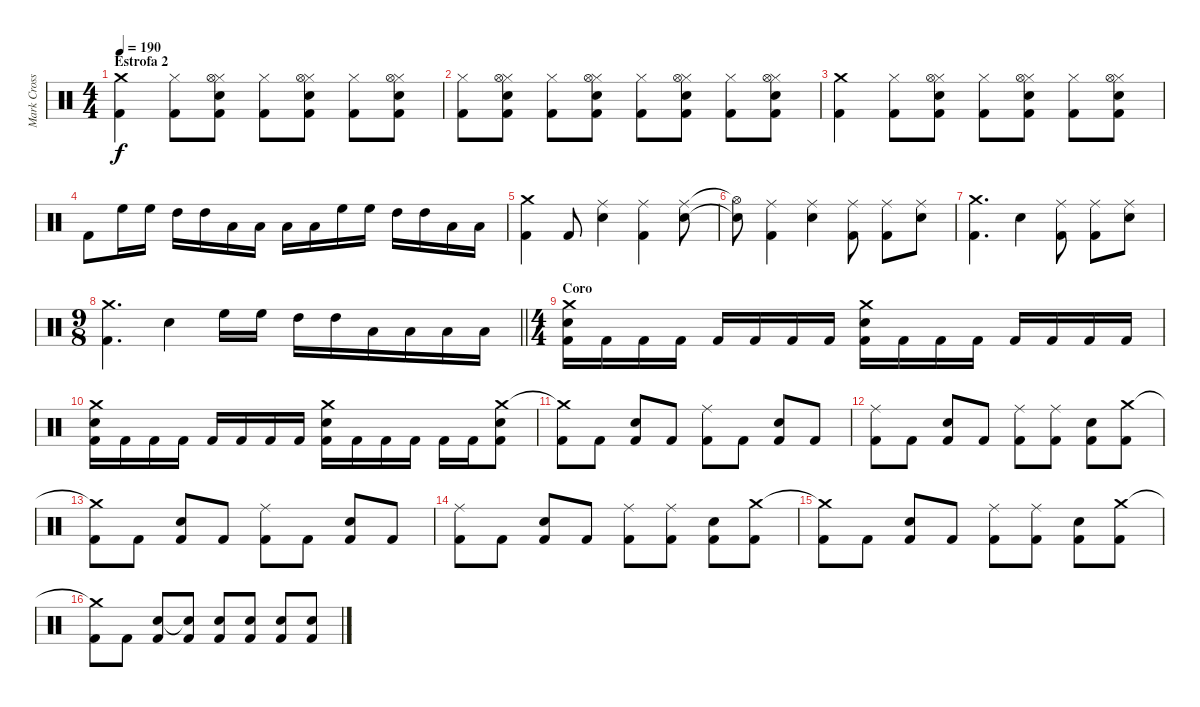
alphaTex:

\track ("Mark Cross" "Mark Cross") {instrument percussion}
\staff {score}
\articulation defaults
\ts (4 4)
\section ("" "Estrofa 2")
\tempo 190
\clef neutral
\ks c
("Crash medium (hit)" "Kick (hit) 2").4{dy f} ("Hi-Hat (closed)" "Kick (hit) 2").8 ("Hi-Hat (closed)" "Hi-Hat (open)" "Electric Snare (hit)" "Kick (hit) 2").8 ("Hi-Hat (closed)" "Kick (hit) 2").8 ("Hi-Hat (closed)" "Hi-Hat (open)" "Electric Snare (hit)" "Kick (hit) 2").8 ("Hi-Hat (closed)" "Kick (hit) 2").8 ("Hi-Hat (closed)" "Hi-Hat (open)" "Electric Snare (hit)" "Kick (hit) 2").8 |
("Hi-Hat (closed)" "Kick (hit) 2").8 ("Hi-Hat (closed)" "Hi-Hat (open)" "Electric Snare (hit)" "Kick (hit) 2").8 ("Hi-Hat (closed)" "Kick (hit) 2").8 ("Hi-Hat (closed)" "Hi-Hat (open)" "Electric Snare (hit)" "Kick (hit) 2").8 ("Hi-Hat (closed)" "Kick (hit) 2").8 ("Hi-Hat (closed)" "Hi-Hat (open)" "Electric Snare (hit)" "Kick (hit) 2").8 ("Hi-Hat (closed)" "Kick (hit) 2").8 ("Hi-Hat (closed)" "Hi-Hat (open)" "Electric Snare (hit)" "Kick (hit) 2").8 |
("Crash medium (hit)" "Kick (hit) 2").4 ("Hi-Hat (closed)" "Kick (hit) 2").8 ("Hi-Hat (closed)" "Hi-Hat (open)" "Electric Snare (hit)" "Kick (hit) 2").8 ("Hi-Hat (closed)" "Kick (hit) 2").8 ("Hi-Hat (closed)" "Hi-Hat (open)" "Electric Snare (hit)" "Kick (hit) 2").8 ("Hi-Hat (closed)" "Kick (hit) 2").8 ("Hi-Hat (closed)" "Hi-Hat (open)" "Electric Snare (hit)" "Kick (hit) 2").8 |
"Kick (hit) 2".8 "High Floor Tom (hit)".16 "High Floor Tom (hit)".16 "High Tom (hit)".16 "High Tom (hit)".16 "Low Tom (hit)".16 "Low Tom (hit)".16 "Low Tom (hit)".16 "Low Tom (hit)".16 "High Floor Tom (hit)".16 "High Floor Tom (hit)".16 "High Tom (hit)".16 "High Tom (hit)".16 "Low Tom (hit)".16 "Low Tom (hit)".16 |
("Crash medium (hit)" "Kick (hit) 2").4 "Kick (hit) 2".8 ("Ride (middle)" "Electric Snare (hit)").4 ("Ride (middle)" "Kick (hit) 2").4 ("Ride (middle)" "Electric Snare (hit)").8 |
("Hi-Hat (open)"{t} "Electric Snare (hit)"{t}).8 ("Ride (middle)" "Kick (hit) 2").4 ("Ride (middle)" "Electric Snare (hit)").4 ("Ride (middle)" "Kick (hit) 2").8 ("Ride (middle)" "Kick (hit) 2").8 ("Ride (middle)" "Electric Snare (hit)").8 |
("Crash medium (hit)" "Kick (hit) 2").4{d} "Electric Snare (hit)".4 ("Ride (middle)" "Kick (hit) 2").8 ("Ride (middle)" "Kick (hit) 2").8 ("Ride (middle)" "Electric Snare (hit)").8 |
\ts (9 8)
\barLineRight lightlight
("Crash medium (hit)" "Kick (hit) 2").4{d} "Electric Snare (hit)".4 "High Floor Tom (hit)".16 "High Floor Tom (hit)".16 "High Tom (hit)".16 "High Tom (hit)".16 "Low Tom (hit)".16 "Low Tom (hit)".16 "Low Tom (hit)".16 "Low Tom (hit)".16 |
\ts (4 4)
\section ("" "Coro")
("Crash medium (hit)" "Electric Snare (hit)" "Kick (hit) 2").16 "Kick (hit) 2".16 "Kick (hit) 2".16 "Kick (hit) 2".16 "Kick (hit) 2".16 "Kick (hit) 2".16 "Kick (hit) 2".16 "Kick (hit) 2".16 ("Crash medium (hit)" "Electric Snare (hit)" "Kick (hit) 2").16 "Kick (hit) 2".16 "Kick (hit) 2".16 "Kick (hit) 2".16 "Kick (hit) 2".16 "Kick (hit) 2".16 "Kick (hit) 2".16 "Kick (hit) 2".16 |
("Crash medium (hit)" "Electric Snare (hit)" "Kick (hit) 2").16 "Kick (hit) 2".16 "Kick (hit) 2".16 "Kick (hit) 2".16 "Kick (hit) 2".16 "Kick (hit) 2".16 "Kick (hit) 2".16 "Kick (hit) 2".16 ("Crash medium (hit)" "Electric Snare (hit)" "Kick (hit) 2").16 "Kick (hit) 2".16 "Kick (hit) 2".16 "Kick (hit) 2".16 "Kick (hit) 2".16 "Kick (hit) 2".16 ("Crash medium (hit)" "Electric Snare (hit)" "Kick (hit) 2").8 |
("Crash medium (hit)"{t} "Kick (hit) 2").8 "Kick (hit) 2".8 ("Electric Snare (hit)" "Kick (hit) 2").8 "Kick (hit) 2".8 ("Ride (middle)" "Kick (hit) 2").8 "Kick (hit) 2".8 ("Electric Snare (hit)" "Kick (hit) 2").8 "Kick (hit) 2".8 |
("Ride (middle)" "Kick (hit) 2").8 "Kick (hit) 2".8 ("Electric Snare (hit)" "Kick (hit) 2").8 "Kick (hit) 2".8 ("Ride (middle)" "Kick (hit) 2").8 ("Ride (middle)" "Kick (hit) 2").8 ("Electric Snare (hit)" "Kick (hit) 2").8 ("Crash medium (hit)" "Kick (hit) 2").8 |
("Crash medium (hit)"{t} "Kick (hit) 2").8 "Kick (hit) 2".8 ("Electric Snare (hit)" "Kick (hit) 2").8 "Kick (hit) 2".8 ("Ride (middle)" "Kick (hit) 2").8 "Kick (hit) 2".8 ("Electric Snare (hit)" "Kick (hit) 2").8 "Kick (hit) 2".8 |
("Ride (middle)" "Kick (hit) 2").8 "Kick (hit) 2".8 ("Electric Snare (hit)" "Kick (hit) 2").8 "Kick (hit) 2".8 ("Ride (middle)" "Kick (hit) 2").8 ("Ride (middle)" "Kick (hit) 2").8 ("Electric Snare (hit)" "Kick (hit) 2").8 ("Crash medium (hit)" "Kick (hit) 2").8 |
("Crash medium (hit)"{t} "Kick (hit) 2").8 "Kick (hit) 2".8 ("Electric Snare (hit)" "Kick (hit) 2").8 "Kick (hit) 2".8 ("Ride (middle)" "Kick (hit) 2").8 ("Ride (middle)" "Kick (hit) 2").8 ("Electric Snare (hit)" "Kick (hit) 2").8 ("Crash medium (hit)" "Kick (hit) 2").8 |
("Crash medium (hit)"{t} "Kick (hit) 2").8 "Kick (hit) 2".8 ("Electric Snare (hit)" "Kick (hit) 2").8 ("Electric Snare (hit)"{t} "Kick (hit) 2").8 ("Electric Snare (hit)" "Kick (hit) 2").8 ("Electric Snare (hit)" "Kick (hit) 2").8 ("Electric Snare (hit)" "Kick (hit) 2").8 ("Electric Snare (hit)" "Kick (hit) 2").8
